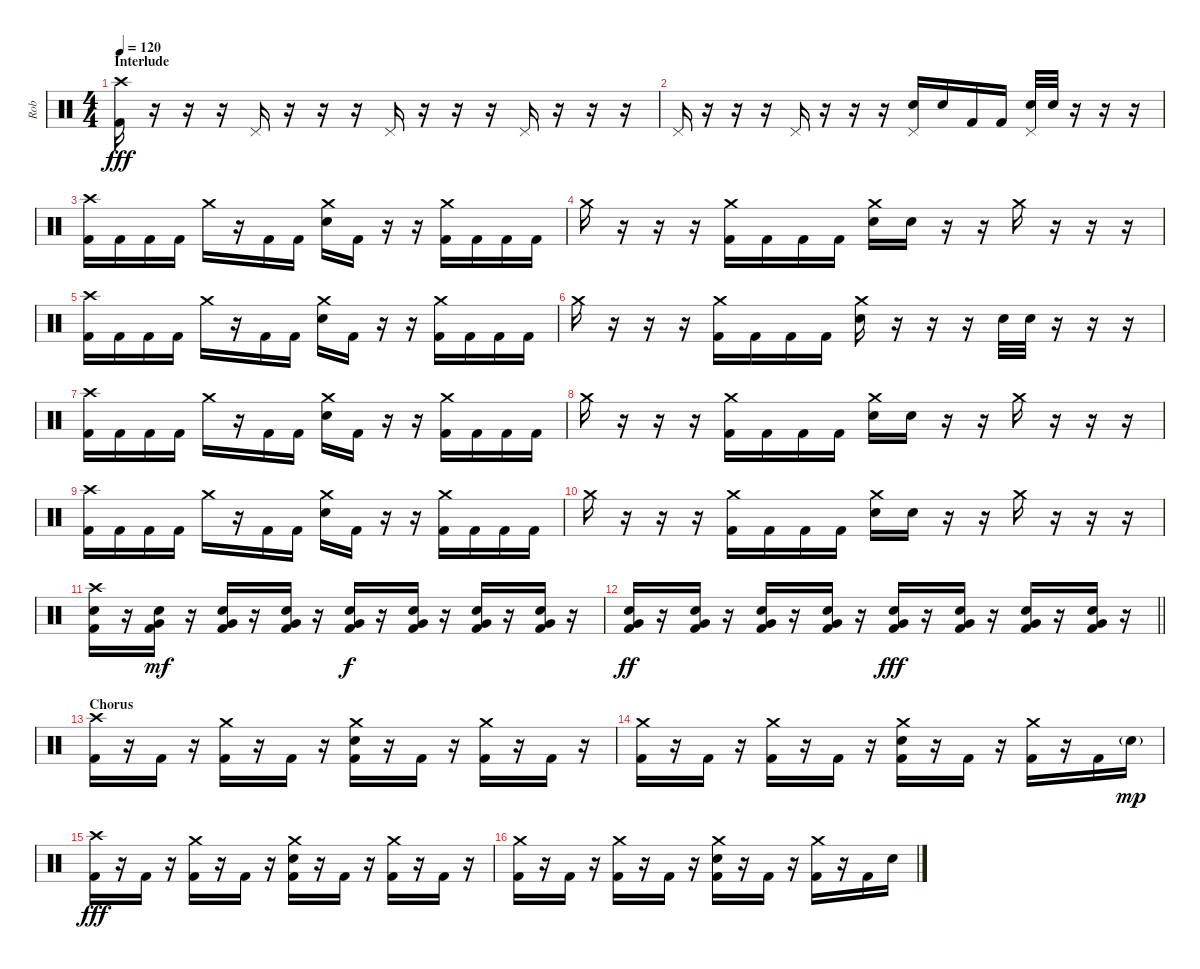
\track ("Rob" "Rob") {instrument percussion}
\staff {score}
\articulation defaults
\ts (4 4)
\section ("" "Interlude")
\tempo 120
\clef neutral
\ks c
("Crash high (hit)" "Kick (hit) 2").16{dy fff} r.16 r.16 r.16 "Pedal Hi-Hat (hit)".16 r.16 r.16 r.16 "Pedal Hi-Hat (hit)".16 r.16 r.16 r.16 "Pedal Hi-Hat (hit)".16 r.16 r.16 r.16 |
"Pedal Hi-Hat (hit)".16 r.16 r.16 r.16 "Pedal Hi-Hat (hit)".16 r.16 r.16 r.16 ("Pedal Hi-Hat (hit)" "Electric Snare (hit)").16 "Electric Snare (hit)".16 "Kick (hit) 2".16 "Kick (hit) 2".16 ("Pedal Hi-Hat (hit)" "Electric Snare (hit)").32 "Electric Snare (hit)".32 r.16 r.16 r.16 |
("Crash high (hit)" "Kick (hit) 2").16 "Kick (hit) 2".16 "Kick (hit) 2".16 "Kick (hit) 2".16 "Crash medium (hit)".16 r.16 "Kick (hit) 2".16 "Kick (hit) 2".16 ("Crash medium (hit)" "Electric Snare (hit)").16 "Kick (hit) 2".16 r.16 r.16 ("Crash medium (hit)" "Kick (hit) 2").16 "Kick (hit) 2".16 "Kick (hit) 2".16 "Kick (hit) 2".16 |
"Crash medium (hit)".16 r.16 r.16 r.16 ("Crash medium (hit)" "Kick (hit) 2").16 "Kick (hit) 2".16 "Kick (hit) 2".16 "Kick (hit) 2".16 ("Crash medium (hit)" "Electric Snare (hit)").16 "Electric Snare (hit)".16 r.16 r.16 "Crash medium (hit)".16 r.16 r.16 r.16 |
("Crash high (hit)" "Kick (hit) 2").16 "Kick (hit) 2".16 "Kick (hit) 2".16 "Kick (hit) 2".16 "Crash medium (hit)".16 r.16 "Kick (hit) 2".16 "Kick (hit) 2".16 ("Crash medium (hit)" "Electric Snare (hit)").16 "Kick (hit) 2".16 r.16 r.16 ("Crash medium (hit)" "Kick (hit) 2").16 "Kick (hit) 2".16 "Kick (hit) 2".16 "Kick (hit) 2".16 |
"Crash medium (hit)".16 r.16 r.16 r.16 ("Crash medium (hit)" "Kick (hit) 2").16 "Kick (hit) 2".16 "Kick (hit) 2".16 "Kick (hit) 2".16 ("Crash medium (hit)" "Electric Snare (hit)").16 r.16 r.16 r.16 "Electric Snare (hit)".32 "Electric Snare (hit)".32 r.16 r.16 r.16 |
("Crash high (hit)" "Kick (hit) 2").16 "Kick (hit) 2".16 "Kick (hit) 2".16 "Kick (hit) 2".16 "Crash medium (hit)".16 r.16 "Kick (hit) 2".16 "Kick (hit) 2".16 ("Crash medium (hit)" "Electric Snare (hit)").16 "Kick (hit) 2".16 r.16 r.16 ("Crash medium (hit)" "Kick (hit) 2").16 "Kick (hit) 2".16 "Kick (hit) 2".16 "Kick (hit) 2".16 |
"Crash medium (hit)".16 r.16 r.16 r.16 ("Crash medium (hit)" "Kick (hit) 2").16 "Kick (hit) 2".16 "Kick (hit) 2".16 "Kick (hit) 2".16 ("Crash medium (hit)" "Electric Snare (hit)").16 "Electric Snare (hit)".16 r.16 r.16 "Crash medium (hit)".16 r.16 r.16 r.16 |
("Crash high (hit)" "Kick (hit) 2").16 "Kick (hit) 2".16 "Kick (hit) 2".16 "Kick (hit) 2".16 "Crash medium (hit)".16 r.16 "Kick (hit) 2".16 "Kick (hit) 2".16 ("Crash medium (hit)" "Electric Snare (hit)").16 "Kick (hit) 2".16 r.16 r.16 ("Crash medium (hit)" "Kick (hit) 2").16 "Kick (hit) 2".16 "Kick (hit) 2".16 "Kick (hit) 2".16 |
"Crash medium (hit)".16 r.16 r.16 r.16 ("Crash medium (hit)" "Kick (hit) 2").16 "Kick (hit) 2".16 "Kick (hit) 2".16 "Kick (hit) 2".16 ("Crash medium (hit)" "Electric Snare (hit)").16 "Electric Snare (hit)".16 r.16 r.16 "Crash medium (hit)".16 r.16 r.16 r.16 |
("Crash high (hit)" "Electric Snare (hit)" "Kick (hit) 2").16 r.16 ("Electric Snare (hit)" "Very Low Tom (hit)" "Kick (hit) 2").16{dy mf} r.16 ("Electric Snare (hit)" "Very Low Tom (hit)" "Kick (hit) 2").16 r.16 ("Electric Snare (hit)" "Very Low Tom (hit)" "Kick (hit) 2").16 r.16 ("Electric Snare (hit)" "Very Low Tom (hit)" "Kick (hit) 2").16{dy f} r.16 ("Electric Snare (hit)" "Very Low Tom (hit)" "Kick (hit) 2").16 r.16 ("Electric Snare (hit)" "Very Low Tom (hit)" "Kick (hit) 2").16 r.16 ("Electric Snare (hit)" "Very Low Tom (hit)" "Kick (hit) 2").16 r.16 |
\barLineRight lightlight
("Electric Snare (hit)" "Very Low Tom (hit)" "Kick (hit) 2").16{dy ff} r.16 ("Electric Snare (hit)" "Very Low Tom (hit)" "Kick (hit) 2").16 r.16 ("Electric Snare (hit)" "Very Low Tom (hit)" "Kick (hit) 2").16 r.16 ("Electric Snare (hit)" "Very Low Tom (hit)" "Kick (hit) 2").16 r.16 ("Electric Snare (hit)" "Very Low Tom (hit)" "Kick (hit) 2").16{dy fff} r.16 ("Electric Snare (hit)" "Very Low Tom (hit)" "Kick (hit) 2").16 r.16 ("Electric Snare (hit)" "Very Low Tom (hit)" "Kick (hit) 2").16 r.16 ("Electric Snare (hit)" "Very Low Tom (hit)" "Kick (hit) 2").16 r.16 |
\section ("" "Chorus")
("Crash high (hit)" "Kick (hit) 2").16 r.16 "Kick (hit) 2".16 r.16 ("Crash medium (hit)" "Kick (hit) 2").16 r.16 "Kick (hit) 2".16 r.16 ("Crash medium (hit)" "Electric Snare (hit)" "Kick (hit) 2").16 r.16 "Kick (hit) 2".16 r.16 ("Crash medium (hit)" "Kick (hit) 2").16 r.16 "Kick (hit) 2".16 r.16 |
("Crash medium (hit)" "Kick (hit) 2").16 r.16 "Kick (hit) 2".16 r.16 ("Crash medium (hit)" "Kick (hit) 2").16 r.16 "Kick (hit) 2".16 r.16 ("Crash medium (hit)" "Electric Snare (hit)" "Kick (hit) 2").16 r.16 "Kick (hit) 2".16 r.16 ("Crash medium (hit)" "Kick (hit) 2").16 r.16 "Kick (hit) 2".16 "Electric Snare (hit)"{g}.16{dy mp} |
("Crash high (hit)" "Kick (hit) 2").16{dy fff} r.16 "Kick (hit) 2".16 r.16 ("Crash medium (hit)" "Kick (hit) 2").16 r.16 "Kick (hit) 2".16 r.16 ("Crash medium (hit)" "Electric Snare (hit)" "Kick (hit) 2").16 r.16 "Kick (hit) 2".16 r.16 ("Crash medium (hit)" "Kick (hit) 2").16 r.16 "Kick (hit) 2".16 r.16 |
("Crash medium (hit)" "Kick (hit) 2").16 r.16 "Kick (hit) 2".16 r.16 ("Crash medium (hit)" "Kick (hit) 2").16 r.16 "Kick (hit) 2".16 r.16 ("Crash medium (hit)" "Electric Snare (hit)" "Kick (hit) 2").16 r.16 "Kick (hit) 2".16 r.16 ("Crash medium (hit)" "Kick (hit) 2").16 r.16 "Kick (hit) 2".16 "Electric Snare (hit)".16
